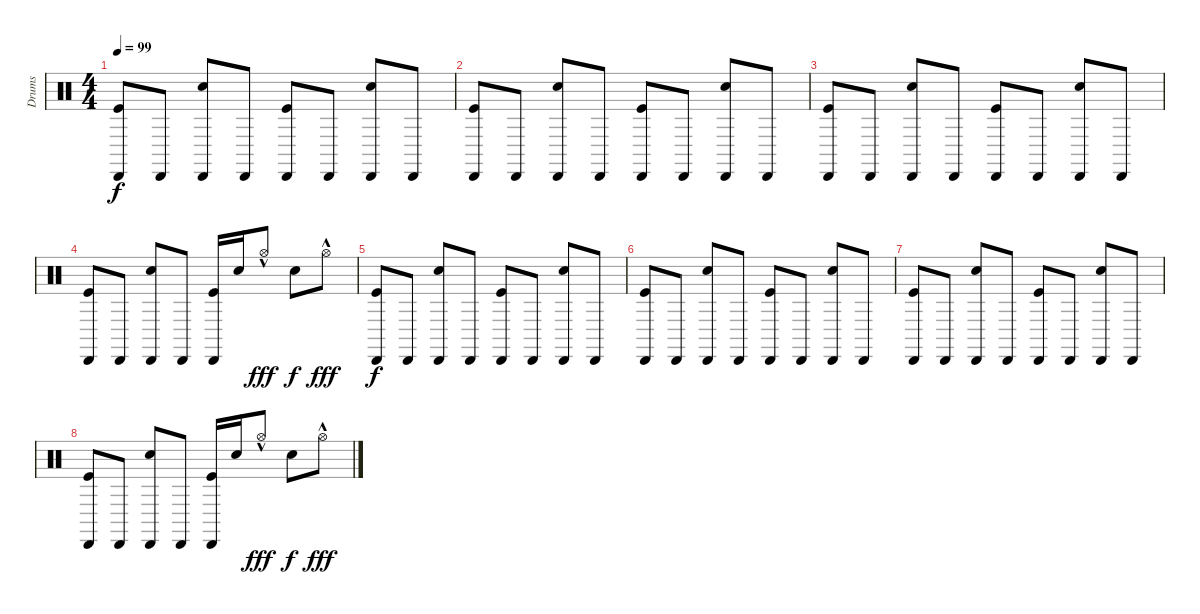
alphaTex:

\track ("Drums" "Drums") {instrument percussion}
\staff {score}
\articulation defaults
\ts (4 4)
\tempo 99
\clef neutral
\ks c
("Cabasa (hit)" "Kick (hit)").8{dy f} "Cabasa (hit)".8 ("Cabasa (hit)" "Electric Snare (hit)").8 "Cabasa (hit)".8 ("Cabasa (hit)" "Kick (hit)").8 "Cabasa (hit)".8 ("Cabasa (hit)" "Electric Snare (hit)").8 "Cabasa (hit)".8 |
("Cabasa (hit)" "Kick (hit)").8 "Cabasa (hit)".8 ("Cabasa (hit)" "Electric Snare (hit)").8 "Cabasa (hit)".8 ("Cabasa (hit)" "Kick (hit)").8 "Cabasa (hit)".8 ("Cabasa (hit)" "Electric Snare (hit)").8 "Cabasa (hit)".8 |
("Cabasa (hit)" "Kick (hit)").8 "Cabasa (hit)".8 ("Cabasa (hit)" "Electric Snare (hit)").8 "Cabasa (hit)".8 ("Cabasa (hit)" "Kick (hit)").8 "Cabasa (hit)".8 ("Cabasa (hit)" "Electric Snare (hit)").8 "Cabasa (hit)".8 |
("Cabasa (hit)" "Kick (hit)").8 "Cabasa (hit)".8 ("Cabasa (hit)" "Electric Snare (hit)").8 "Cabasa (hit)".8 ("Cabasa (hit)" "Kick (hit)").16 "Electric Snare (hit)".16 "Hi-Hat (open)"{hac}.8{dy fff} "Electric Snare (hit)".8{dy f} "Hi-Hat (open)"{hac}.8{dy fff} |
("Cabasa (hit)" "Kick (hit)").8{dy f} "Cabasa (hit)".8 ("Cabasa (hit)" "Electric Snare (hit)").8 "Cabasa (hit)".8 ("Cabasa (hit)" "Kick (hit)").8 "Cabasa (hit)".8 ("Cabasa (hit)" "Electric Snare (hit)").8 "Cabasa (hit)".8 |
("Cabasa (hit)" "Kick (hit)").8 "Cabasa (hit)".8 ("Cabasa (hit)" "Electric Snare (hit)").8 "Cabasa (hit)".8 ("Cabasa (hit)" "Kick (hit)").8 "Cabasa (hit)".8 ("Cabasa (hit)" "Electric Snare (hit)").8 "Cabasa (hit)".8 |
("Cabasa (hit)" "Kick (hit)").8 "Cabasa (hit)".8 ("Cabasa (hit)" "Electric Snare (hit)").8 "Cabasa (hit)".8 ("Cabasa (hit)" "Kick (hit)").8 "Cabasa (hit)".8 ("Cabasa (hit)" "Electric Snare (hit)").8 "Cabasa (hit)".8 |
("Cabasa (hit)" "Kick (hit)").8 "Cabasa (hit)".8 ("Cabasa (hit)" "Electric Snare (hit)").8 "Cabasa (hit)".8 ("Cabasa (hit)" "Kick (hit)").16 "Electric Snare (hit)".16 "Hi-Hat (open)"{hac}.8{dy fff} "Electric Snare (hit)".8{dy f} "Hi-Hat (open)"{hac}.8{dy fff}
